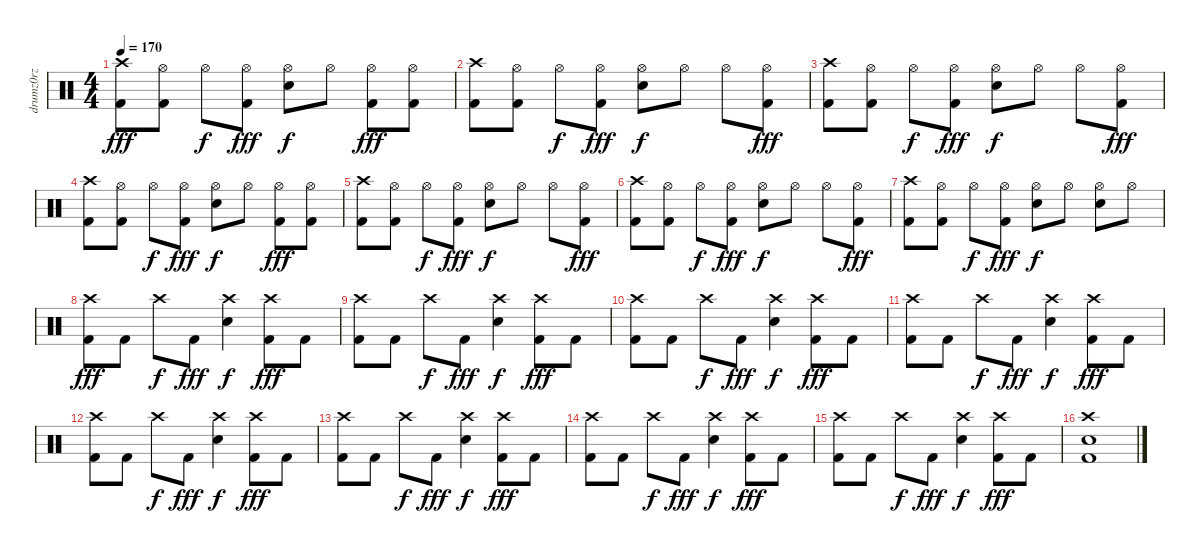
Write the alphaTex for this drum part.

\track ("drumz0rz" "drumz0rz") {instrument percussion}
\staff {score}
\articulation defaults
\ts (4 4)
\tempo 170
\clef neutral
\ks c
("Crash high (hit)" "Kick (hit) 2").8{dy fff} ("Hi-Hat (open)" "Kick (hit) 2").8 "Hi-Hat (open)".8{dy f} ("Hi-Hat (open)" "Kick (hit) 2").8{dy fff} ("Hi-Hat (open)" "Electric Snare (hit)").8{dy f} "Hi-Hat (open)".8 ("Hi-Hat (open)" "Kick (hit) 2").8{dy fff} ("Hi-Hat (open)" "Kick (hit) 2").8 |
("Crash high (hit)" "Kick (hit) 2").8 ("Hi-Hat (open)" "Kick (hit) 2").8 "Hi-Hat (open)".8{dy f} ("Hi-Hat (open)" "Kick (hit) 2").8{dy fff} ("Hi-Hat (open)" "Electric Snare (hit)").8{dy f} "Hi-Hat (open)".8 "Hi-Hat (open)".8 ("Hi-Hat (open)" "Kick (hit) 2").8{dy fff} |
("Crash high (hit)" "Kick (hit) 2").8 ("Hi-Hat (open)" "Kick (hit) 2").8 "Hi-Hat (open)".8{dy f} ("Hi-Hat (open)" "Kick (hit) 2").8{dy fff} ("Hi-Hat (open)" "Electric Snare (hit)").8{dy f} "Hi-Hat (open)".8 "Hi-Hat (open)".8 ("Hi-Hat (open)" "Kick (hit) 2").8{dy fff} |
("Crash high (hit)" "Kick (hit) 2").8 ("Hi-Hat (open)" "Kick (hit) 2").8 "Hi-Hat (open)".8{dy f} ("Hi-Hat (open)" "Kick (hit) 2").8{dy fff} ("Hi-Hat (open)" "Electric Snare (hit)").8{dy f} "Hi-Hat (open)".8 ("Hi-Hat (open)" "Kick (hit) 2").8{dy fff} ("Hi-Hat (open)" "Kick (hit) 2").8 |
("Crash high (hit)" "Kick (hit) 2").8 ("Hi-Hat (open)" "Kick (hit) 2").8 "Hi-Hat (open)".8{dy f} ("Hi-Hat (open)" "Kick (hit) 2").8{dy fff} ("Hi-Hat (open)" "Electric Snare (hit)").8{dy f} "Hi-Hat (open)".8 "Hi-Hat (open)".8 ("Hi-Hat (open)" "Kick (hit) 2").8{dy fff} |
("Crash high (hit)" "Kick (hit) 2").8 ("Hi-Hat (open)" "Kick (hit) 2").8 "Hi-Hat (open)".8{dy f} ("Hi-Hat (open)" "Kick (hit) 2").8{dy fff} ("Hi-Hat (open)" "Electric Snare (hit)").8{dy f} "Hi-Hat (open)".8 "Hi-Hat (open)".8 ("Hi-Hat (open)" "Kick (hit) 2").8{dy fff} |
("Crash high (hit)" "Kick (hit) 2").8 ("Hi-Hat (open)" "Kick (hit) 2").8 "Hi-Hat (open)".8{dy f} ("Hi-Hat (open)" "Kick (hit) 2").8{dy fff} ("Hi-Hat (open)" "Electric Snare (hit)").8{dy f} "Hi-Hat (open)".8 ("Hi-Hat (open)" "Electric Snare (hit)").8 "Hi-Hat (open)".8 |
("Crash high (hit)" "Kick (hit) 2").8{dy fff} "Kick (hit) 2".8 "Crash high (hit)".8{dy f} "Kick (hit) 2".8{dy fff} ("Crash high (hit)" "Electric Snare (hit)").4{dy f} ("Crash high (hit)" "Kick (hit) 2").8{dy fff} "Kick (hit) 2".8 |
("Crash high (hit)" "Kick (hit) 2").8 "Kick (hit) 2".8 "Crash high (hit)".8{dy f} "Kick (hit) 2".8{dy fff} ("Crash high (hit)" "Electric Snare (hit)").4{dy f} ("Crash high (hit)" "Kick (hit) 2").8{dy fff} "Kick (hit) 2".8 |
("Crash high (hit)" "Kick (hit) 2").8 "Kick (hit) 2".8 "Crash high (hit)".8{dy f} "Kick (hit) 2".8{dy fff} ("Crash high (hit)" "Electric Snare (hit)").4{dy f} ("Crash high (hit)" "Kick (hit) 2").8{dy fff} "Kick (hit) 2".8 |
("Crash high (hit)" "Kick (hit) 2").8 "Kick (hit) 2".8 "Crash high (hit)".8{dy f} "Kick (hit) 2".8{dy fff} ("Crash high (hit)" "Electric Snare (hit)").4{dy f} ("Crash high (hit)" "Kick (hit) 2").8{dy fff} "Kick (hit) 2".8 |
("Crash high (hit)" "Kick (hit) 2").8 "Kick (hit) 2".8 "Crash high (hit)".8{dy f} "Kick (hit) 2".8{dy fff} ("Crash high (hit)" "Electric Snare (hit)").4{dy f} ("Crash high (hit)" "Kick (hit) 2").8{dy fff} "Kick (hit) 2".8 |
("Crash high (hit)" "Kick (hit) 2").8 "Kick (hit) 2".8 "Crash high (hit)".8{dy f} "Kick (hit) 2".8{dy fff} ("Crash high (hit)" "Electric Snare (hit)").4{dy f} ("Crash high (hit)" "Kick (hit) 2").8{dy fff} "Kick (hit) 2".8 |
("Crash high (hit)" "Kick (hit) 2").8 "Kick (hit) 2".8 "Crash high (hit)".8{dy f} "Kick (hit) 2".8{dy fff} ("Crash high (hit)" "Electric Snare (hit)").4{dy f} ("Crash high (hit)" "Kick (hit) 2").8{dy fff} "Kick (hit) 2".8 |
("Crash high (hit)" "Kick (hit) 2").8 "Kick (hit) 2".8 "Crash high (hit)".8{dy f} "Kick (hit) 2".8{dy fff} ("Crash high (hit)" "Electric Snare (hit)").4{dy f} ("Crash high (hit)" "Kick (hit) 2").8{dy fff} "Kick (hit) 2".8 |
("Crash high (hit)" "Electric Snare (hit)" "Kick (hit) 2").1
